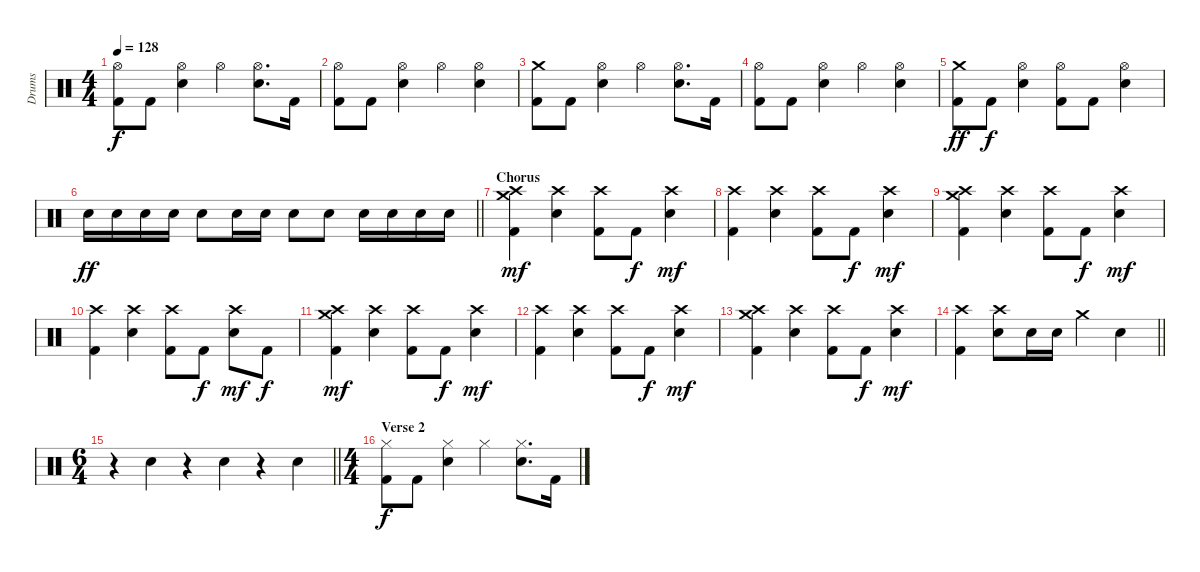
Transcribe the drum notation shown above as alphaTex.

\track ("Drums" "Drums") {instrument percussion}
\staff {score}
\articulation defaults
\ts (4 4)
\tempo 128
\clef neutral
\ks c
("Hi-Hat (open)" "Kick (hit) 2").8{dy f} "Kick (hit) 2".8 ("Hi-Hat (open)" "Electric Snare (hit)").4 "Hi-Hat (open)".4 ("Hi-Hat (open)" "Electric Snare (hit)").8{d} "Kick (hit) 2".16 |
("Hi-Hat (open)" "Kick (hit) 2").8 "Kick (hit) 2".8 ("Hi-Hat (open)" "Electric Snare (hit)").4 "Hi-Hat (open)".4 ("Hi-Hat (open)" "Electric Snare (hit)").4 |
("Crash medium (hit)" "Kick (hit) 2").8 "Kick (hit) 2".8 ("Hi-Hat (open)" "Electric Snare (hit)").4 "Hi-Hat (open)".4 ("Hi-Hat (open)" "Electric Snare (hit)").8{d} "Kick (hit) 2".16 |
("Hi-Hat (open)" "Kick (hit) 2").8 "Kick (hit) 2".8 ("Hi-Hat (open)" "Electric Snare (hit)").4 "Hi-Hat (open)".4 ("Hi-Hat (open)" "Electric Snare (hit)").4 |
("Crash medium (hit)" "Kick (hit) 2").8{dy ff} "Kick (hit) 2".8{dy f} ("Hi-Hat (open)" "Electric Snare (hit)").4 ("Hi-Hat (open)" "Kick (hit) 2").8 "Kick (hit) 2".8 ("Hi-Hat (open)" "Electric Snare (hit)").4 |
\barLineRight lightlight "Electric Snare (hit)".16{dy ff} "Electric Snare (hit)".16 "Electric Snare (hit)".16 "Electric Snare (hit)".16 "Electric Snare (hit)".8 "Electric Snare (hit)".16 "Electric Snare (hit)".16 "Electric Snare (hit)".8 "Electric Snare (hit)".8 "Electric Snare (hit)".16 "Electric Snare (hit)".16 "Electric Snare (hit)".16 "Electric Snare (hit)".16
|
\section ("" "Chorus")
("Crash medium (hit)" "Crash high (hit)" "Kick (hit) 2").4{dy mf} ("Crash high (hit)" "Electric Snare (hit)").4 ("Crash high (hit)" "Kick (hit) 2").8 "Kick (hit) 2".8{dy f} ("Crash high (hit)" "Electric Snare (hit)").4{dy mf} |
("Crash high (hit)" "Kick (hit) 2").4 ("Crash high (hit)" "Electric Snare (hit)").4 ("Crash high (hit)" "Kick (hit) 2").8 "Kick (hit) 2".8{dy f} ("Crash high (hit)" "Electric Snare (hit)").4{dy mf} |
("Crash medium (hit)" "Crash high (hit)" "Kick (hit) 2").4 ("Crash high (hit)" "Electric Snare (hit)").4 ("Crash high (hit)" "Kick (hit) 2").8 "Kick (hit) 2".8{dy f} ("Crash high (hit)" "Electric Snare (hit)").4{dy mf} |
("Crash high (hit)" "Kick (hit) 2").4 ("Crash high (hit)" "Electric Snare (hit)").4 ("Crash high (hit)" "Kick (hit) 2").8 "Kick (hit) 2".8{dy f} ("Crash high (hit)" "Electric Snare (hit)").8{dy mf} "Kick (hit) 2".8{dy f} |
("Crash medium (hit)" "Crash high (hit)" "Kick (hit) 2").4{dy mf} ("Crash high (hit)" "Electric Snare (hit)").4 ("Crash high (hit)" "Kick (hit) 2").8 "Kick (hit) 2".8{dy f} ("Crash high (hit)" "Electric Snare (hit)").4{dy mf} |
("Crash high (hit)" "Kick (hit) 2").4 ("Crash high (hit)" "Electric Snare (hit)").4 ("Crash high (hit)" "Kick (hit) 2").8 "Kick (hit) 2".8{dy f} ("Crash high (hit)" "Electric Snare (hit)").4{dy mf} |
("Crash medium (hit)" "Crash high (hit)" "Kick (hit) 2").4 ("Crash high (hit)" "Electric Snare (hit)").4 ("Crash high (hit)" "Kick (hit) 2").8 "Kick (hit) 2".8{dy f} ("Crash high (hit)" "Electric Snare (hit)").4{dy mf} |
\barLineRight lightlight
("Crash high (hit)" "Kick (hit) 2").4 ("Crash high (hit)" "Electric Snare (hit)").8 "Electric Snare (hit)".16 "Electric Snare (hit)".16 "Crash medium (hit)".4 "Electric Snare (hit)".4 |
\ts (6 4)
\barLineRight lightlight
r.4 "Electric Snare (hit)".4 r.4 "Electric Snare (hit)".4 r.4 "Electric Snare (hit)".4 |
\ts (4 4)
\section ("" "Verse 2")
("Hi-Hat (closed)" "Kick (hit) 2").8{dy f} "Kick (hit) 2".8 ("Hi-Hat (closed)" "Electric Snare (hit)").4 "Hi-Hat (closed)".4 ("Hi-Hat (closed)" "Electric Snare (hit)").8{d} "Kick (hit) 2".16
